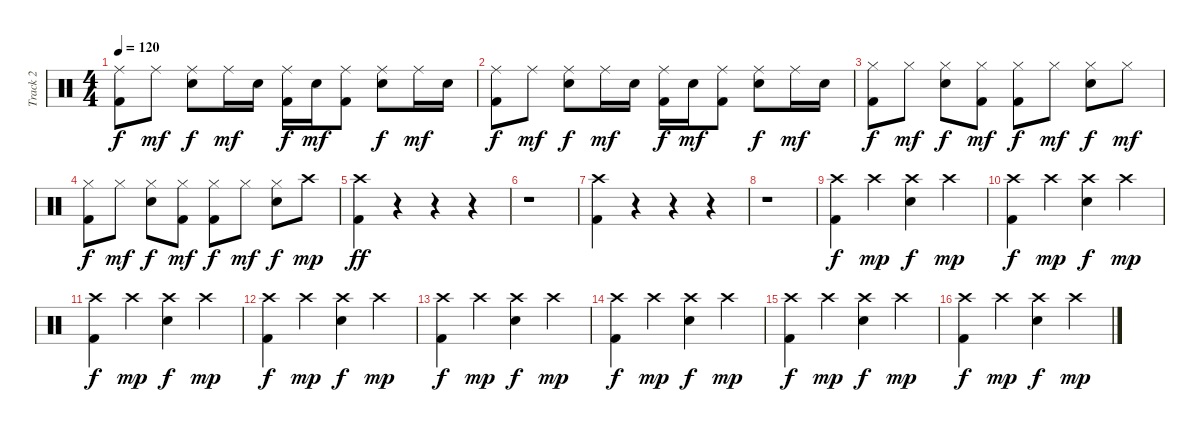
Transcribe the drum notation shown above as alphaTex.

\track ("Track 2" "Track 2") {instrument percussion}
\staff {score}
\articulation defaults
\ts (4 4)
\tempo 120
\clef neutral
\ks c
("Ride (middle)" "Kick (hit) 2").8{dy f} "Ride (middle)".8{dy mf} ("Ride (middle)" "Electric Snare (hit)").8{dy f} "Ride (middle)".16{dy mf} "Electric Snare (hit)".16 ("Ride (middle)" "Kick (hit) 2").16{dy f} "Electric Snare (hit)".16{dy mf} ("Ride (middle)" "Kick (hit) 2").8 ("Ride (middle)" "Electric Snare (hit)").8{dy f} "Ride (middle)".16{dy mf} "Electric Snare (hit)".16 |
("Ride (middle)" "Kick (hit) 2").8{dy f} "Ride (middle)".8{dy mf} ("Ride (middle)" "Electric Snare (hit)").8{dy f} "Ride (middle)".16{dy mf} "Electric Snare (hit)".16 ("Ride (middle)" "Kick (hit) 2").16{dy f} "Electric Snare (hit)".16{dy mf} ("Ride (middle)" "Kick (hit) 2").8 ("Ride (middle)" "Electric Snare (hit)").8{dy f} "Ride (middle)".16{dy mf} "Electric Snare (hit)".16 |
("Hi-Hat (closed)" "Kick (hit) 2").8{dy f} "Hi-Hat (closed)".8{dy mf} ("Hi-Hat (closed)" "Electric Snare (hit)").8{dy f} ("Hi-Hat (closed)" "Kick (hit) 2").8{dy mf} ("Hi-Hat (closed)" "Kick (hit) 2").8{dy f} "Hi-Hat (closed)".8{dy mf} ("Hi-Hat (closed)" "Electric Snare (hit)").8{dy f} "Hi-Hat (closed)".8{dy mf} |
("Hi-Hat (closed)" "Kick (hit) 2").8{dy f} "Hi-Hat (closed)".8{dy mf} ("Hi-Hat (closed)" "Electric Snare (hit)").8{dy f} ("Hi-Hat (closed)" "Kick (hit) 2").8{dy mf} ("Hi-Hat (closed)" "Kick (hit) 2").8{dy f} "Hi-Hat (closed)".8{dy mf} ("Hi-Hat (closed)" "Electric Snare (hit)").8{dy f} "Crash high (hit)".8{dy mp} |
("Crash high (hit)" "Kick (hit) 2").4{dy ff} r.4 r.4 r.4 |
r.1 |
("Crash high (hit)" "Kick (hit) 2").4 r.4 r.4 r.4 |
r.1 |
("Crash high (hit)" "Kick (hit) 2").4{dy f} "Crash high (hit)".4{dy mp} ("Crash high (hit)" "Electric Snare (hit)").4{dy f} "Crash high (hit)".4{dy mp} |
("Crash high (hit)" "Kick (hit) 2").4{dy f} "Crash high (hit)".4{dy mp} ("Crash high (hit)" "Electric Snare (hit)").4{dy f} "Crash high (hit)".4{dy mp} |
("Crash high (hit)" "Kick (hit) 2").4{dy f} "Crash high (hit)".4{dy mp} ("Crash high (hit)" "Electric Snare (hit)").4{dy f} "Crash high (hit)".4{dy mp} |
("Crash high (hit)" "Kick (hit) 2").4{dy f} "Crash high (hit)".4{dy mp} ("Crash high (hit)" "Electric Snare (hit)").4{dy f} "Crash high (hit)".4{dy mp} |
("Crash high (hit)" "Kick (hit) 2").4{dy f} "Crash high (hit)".4{dy mp} ("Crash high (hit)" "Electric Snare (hit)").4{dy f} "Crash high (hit)".4{dy mp} |
("Crash high (hit)" "Kick (hit) 2").4{dy f} "Crash high (hit)".4{dy mp} ("Crash high (hit)" "Electric Snare (hit)").4{dy f} "Crash high (hit)".4{dy mp} |
("Crash high (hit)" "Kick (hit) 2").4{dy f} "Crash high (hit)".4{dy mp} ("Crash high (hit)" "Electric Snare (hit)").4{dy f} "Crash high (hit)".4{dy mp} |
("Crash high (hit)" "Kick (hit) 2").4{dy f} "Crash high (hit)".4{dy mp} ("Crash high (hit)" "Electric Snare (hit)").4{dy f} "Crash high (hit)".4{dy mp}
